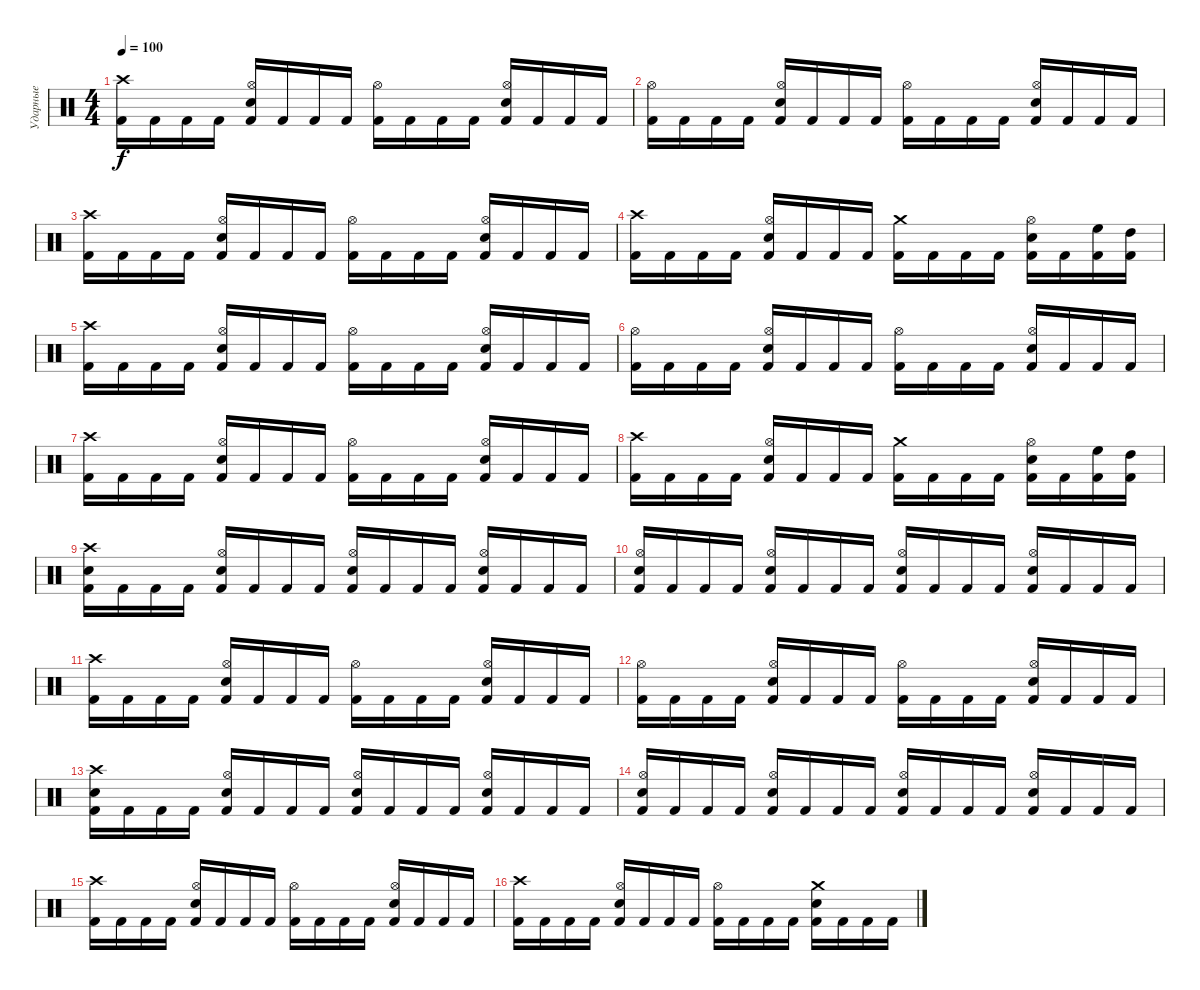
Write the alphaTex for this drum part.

\track ("Ударные" "Ударные") {instrument percussion}
\staff {score}
\articulation defaults
\ts (4 4)
\tempo 100
\clef neutral
\ks c
("Crash high (hit)" "Kick (hit) 2").16{dy f} "Kick (hit) 2".16 "Kick (hit) 2".16 "Kick (hit) 2".16 ("Hi-Hat (open)" "Electric Snare (hit)" "Kick (hit) 2").16 "Kick (hit) 2".16 "Kick (hit) 2".16 "Kick (hit) 2".16 ("Hi-Hat (open)" "Kick (hit) 2").16 "Kick (hit) 2".16 "Kick (hit) 2".16 "Kick (hit) 2".16 ("Hi-Hat (open)" "Electric Snare (hit)" "Kick (hit) 2").16 "Kick (hit) 2".16 "Kick (hit) 2".16 "Kick (hit) 2".16 |
("Hi-Hat (open)" "Kick (hit) 2").16 "Kick (hit) 2".16 "Kick (hit) 2".16 "Kick (hit) 2".16 ("Hi-Hat (open)" "Electric Snare (hit)" "Kick (hit) 2").16 "Kick (hit) 2".16 "Kick (hit) 2".16 "Kick (hit) 2".16 ("Hi-Hat (open)" "Kick (hit) 2").16 "Kick (hit) 2".16 "Kick (hit) 2".16 "Kick (hit) 2".16 ("Hi-Hat (open)" "Electric Snare (hit)" "Kick (hit) 2").16 "Kick (hit) 2".16 "Kick (hit) 2".16 "Kick (hit) 2".16 |
("Crash high (hit)" "Kick (hit) 2").16 "Kick (hit) 2".16 "Kick (hit) 2".16 "Kick (hit) 2".16 ("Hi-Hat (open)" "Electric Snare (hit)" "Kick (hit) 2").16 "Kick (hit) 2".16 "Kick (hit) 2".16 "Kick (hit) 2".16 ("Hi-Hat (open)" "Kick (hit) 2").16 "Kick (hit) 2".16 "Kick (hit) 2".16 "Kick (hit) 2".16 ("Hi-Hat (open)" "Electric Snare (hit)" "Kick (hit) 2").16 "Kick (hit) 2".16 "Kick (hit) 2".16 "Kick (hit) 2".16 |
("Crash high (hit)" "Kick (hit) 2").16 "Kick (hit) 2".16 "Kick (hit) 2".16 "Kick (hit) 2".16 ("Hi-Hat (open)" "Electric Snare (hit)" "Kick (hit) 2").16 "Kick (hit) 2".16 "Kick (hit) 2".16 "Kick (hit) 2".16 ("Crash medium (hit)" "Kick (hit) 2").16 "Kick (hit) 2".16 "Kick (hit) 2".16 "Kick (hit) 2".16 ("Hi-Hat (open)" "Electric Snare (hit)" "Kick (hit) 2").16 "Kick (hit) 2".16 ("High Floor Tom (hit)" "Kick (hit) 2").16 ("High Tom (hit)" "Kick (hit) 2").16 |
("Crash high (hit)" "Kick (hit) 2").16 "Kick (hit) 2".16 "Kick (hit) 2".16 "Kick (hit) 2".16 ("Hi-Hat (open)" "Electric Snare (hit)" "Kick (hit) 2").16 "Kick (hit) 2".16 "Kick (hit) 2".16 "Kick (hit) 2".16 ("Hi-Hat (open)" "Kick (hit) 2").16 "Kick (hit) 2".16 "Kick (hit) 2".16 "Kick (hit) 2".16 ("Hi-Hat (open)" "Electric Snare (hit)" "Kick (hit) 2").16 "Kick (hit) 2".16 "Kick (hit) 2".16 "Kick (hit) 2".16 |
("Hi-Hat (open)" "Kick (hit) 2").16 "Kick (hit) 2".16 "Kick (hit) 2".16 "Kick (hit) 2".16 ("Hi-Hat (open)" "Electric Snare (hit)" "Kick (hit) 2").16 "Kick (hit) 2".16 "Kick (hit) 2".16 "Kick (hit) 2".16 ("Hi-Hat (open)" "Kick (hit) 2").16 "Kick (hit) 2".16 "Kick (hit) 2".16 "Kick (hit) 2".16 ("Hi-Hat (open)" "Electric Snare (hit)" "Kick (hit) 2").16 "Kick (hit) 2".16 "Kick (hit) 2".16 "Kick (hit) 2".16 |
("Crash high (hit)" "Kick (hit) 2").16 "Kick (hit) 2".16 "Kick (hit) 2".16 "Kick (hit) 2".16 ("Hi-Hat (open)" "Electric Snare (hit)" "Kick (hit) 2").16 "Kick (hit) 2".16 "Kick (hit) 2".16 "Kick (hit) 2".16 ("Hi-Hat (open)" "Kick (hit) 2").16 "Kick (hit) 2".16 "Kick (hit) 2".16 "Kick (hit) 2".16 ("Hi-Hat (open)" "Electric Snare (hit)" "Kick (hit) 2").16 "Kick (hit) 2".16 "Kick (hit) 2".16 "Kick (hit) 2".16 |
("Crash high (hit)" "Kick (hit) 2").16 "Kick (hit) 2".16 "Kick (hit) 2".16 "Kick (hit) 2".16 ("Hi-Hat (open)" "Electric Snare (hit)" "Kick (hit) 2").16 "Kick (hit) 2".16 "Kick (hit) 2".16 "Kick (hit) 2".16 ("Crash medium (hit)" "Kick (hit) 2").16 "Kick (hit) 2".16 "Kick (hit) 2".16 "Kick (hit) 2".16 ("Hi-Hat (open)" "Electric Snare (hit)" "Kick (hit) 2").16 "Kick (hit) 2".16 ("High Floor Tom (hit)" "Kick (hit) 2").16 ("High Tom (hit)" "Kick (hit) 2").16 |
("Crash high (hit)" "Electric Snare (hit)" "Kick (hit) 2").16 "Kick (hit) 2".16 "Kick (hit) 2".16 "Kick (hit) 2".16 ("Hi-Hat (open)" "Electric Snare (hit)" "Kick (hit) 2").16 "Kick (hit) 2".16 "Kick (hit) 2".16 "Kick (hit) 2".16 ("Hi-Hat (open)" "Electric Snare (hit)" "Kick (hit) 2").16 "Kick (hit) 2".16 "Kick (hit) 2".16 "Kick (hit) 2".16 ("Hi-Hat (open)" "Electric Snare (hit)" "Kick (hit) 2").16 "Kick (hit) 2".16 "Kick (hit) 2".16 "Kick (hit) 2".16 |
("Hi-Hat (open)" "Electric Snare (hit)" "Kick (hit) 2").16 "Kick (hit) 2".16 "Kick (hit) 2".16 "Kick (hit) 2".16 ("Hi-Hat (open)" "Electric Snare (hit)" "Kick (hit) 2").16 "Kick (hit) 2".16 "Kick (hit) 2".16 "Kick (hit) 2".16 ("Hi-Hat (open)" "Electric Snare (hit)" "Kick (hit) 2").16 "Kick (hit) 2".16 "Kick (hit) 2".16 "Kick (hit) 2".16 ("Hi-Hat (open)" "Electric Snare (hit)" "Kick (hit) 2").16 "Kick (hit) 2".16 "Kick (hit) 2".16 "Kick (hit) 2".16 |
("Crash high (hit)" "Kick (hit) 2").16 "Kick (hit) 2".16 "Kick (hit) 2".16 "Kick (hit) 2".16 ("Hi-Hat (open)" "Electric Snare (hit)" "Kick (hit) 2").16 "Kick (hit) 2".16 "Kick (hit) 2".16 "Kick (hit) 2".16 ("Hi-Hat (open)" "Kick (hit) 2").16 "Kick (hit) 2".16 "Kick (hit) 2".16 "Kick (hit) 2".16 ("Hi-Hat (open)" "Electric Snare (hit)" "Kick (hit) 2").16 "Kick (hit) 2".16 "Kick (hit) 2".16 "Kick (hit) 2".16 |
("Hi-Hat (open)" "Kick (hit) 2").16 "Kick (hit) 2".16 "Kick (hit) 2".16 "Kick (hit) 2".16 ("Hi-Hat (open)" "Electric Snare (hit)" "Kick (hit) 2").16 "Kick (hit) 2".16 "Kick (hit) 2".16 "Kick (hit) 2".16 ("Hi-Hat (open)" "Kick (hit) 2").16 "Kick (hit) 2".16 "Kick (hit) 2".16 "Kick (hit) 2".16 ("Hi-Hat (open)" "Electric Snare (hit)" "Kick (hit) 2").16 "Kick (hit) 2".16 "Kick (hit) 2".16 "Kick (hit) 2".16 |
("Crash high (hit)" "Electric Snare (hit)" "Kick (hit) 2").16 "Kick (hit) 2".16 "Kick (hit) 2".16 "Kick (hit) 2".16 ("Hi-Hat (open)" "Electric Snare (hit)" "Kick (hit) 2").16 "Kick (hit) 2".16 "Kick (hit) 2".16 "Kick (hit) 2".16 ("Hi-Hat (open)" "Electric Snare (hit)" "Kick (hit) 2").16 "Kick (hit) 2".16 "Kick (hit) 2".16 "Kick (hit) 2".16 ("Hi-Hat (open)" "Electric Snare (hit)" "Kick (hit) 2").16 "Kick (hit) 2".16 "Kick (hit) 2".16 "Kick (hit) 2".16 |
("Hi-Hat (open)" "Electric Snare (hit)" "Kick (hit) 2").16 "Kick (hit) 2".16 "Kick (hit) 2".16 "Kick (hit) 2".16 ("Hi-Hat (open)" "Electric Snare (hit)" "Kick (hit) 2").16 "Kick (hit) 2".16 "Kick (hit) 2".16 "Kick (hit) 2".16 ("Hi-Hat (open)" "Electric Snare (hit)" "Kick (hit) 2").16 "Kick (hit) 2".16 "Kick (hit) 2".16 "Kick (hit) 2".16 ("Hi-Hat (open)" "Electric Snare (hit)" "Kick (hit) 2").16 "Kick (hit) 2".16 "Kick (hit) 2".16 "Kick (hit) 2".16 |
("Crash high (hit)" "Kick (hit) 2").16 "Kick (hit) 2".16 "Kick (hit) 2".16 "Kick (hit) 2".16 ("Hi-Hat (open)" "Electric Snare (hit)" "Kick (hit) 2").16 "Kick (hit) 2".16 "Kick (hit) 2".16 "Kick (hit) 2".16 ("Hi-Hat (open)" "Kick (hit) 2").16 "Kick (hit) 2".16 "Kick (hit) 2".16 "Kick (hit) 2".16 ("Hi-Hat (open)" "Electric Snare (hit)" "Kick (hit) 2").16 "Kick (hit) 2".16 "Kick (hit) 2".16 "Kick (hit) 2".16 |
("Crash high (hit)" "Kick (hit) 2").16 "Kick (hit) 2".16 "Kick (hit) 2".16 "Kick (hit) 2".16 ("Hi-Hat (open)" "Electric Snare (hit)" "Kick (hit) 2").16 "Kick (hit) 2".16 "Kick (hit) 2".16 "Kick (hit) 2".16 ("Hi-Hat (open)" "Kick (hit) 2").16 "Kick (hit) 2".16 "Kick (hit) 2".16 "Kick (hit) 2".16 ("Crash medium (hit)" "Electric Snare (hit)" "Kick (hit) 2").16 "Kick (hit) 2".16 "Kick (hit) 2".16 "Kick (hit) 2".16
